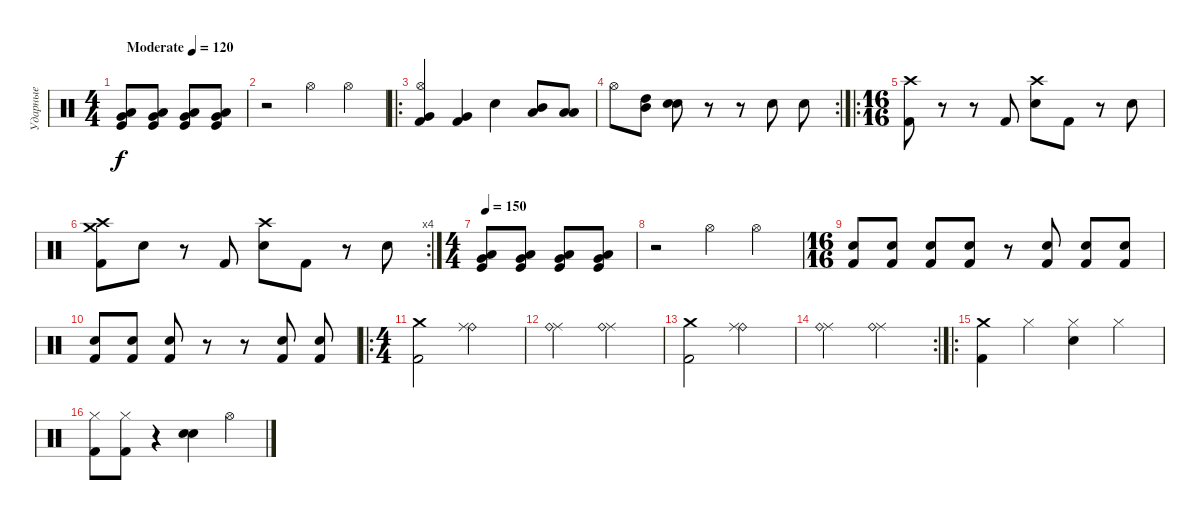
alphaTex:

\track ("Ударные" "Ударные") {instrument percussion}
\staff {score}
\articulation defaults
\ts (4 4)
\tempo (120 "Moderate")
\tempo 150
\tempo (120 "Moderate")
\clef neutral
\ks c
("Kick (hit)" "Low Floor Tom (hit)" "Very Low Tom (hit)").8{dy f} ("Kick (hit)" "Low Floor Tom (hit)" "Very Low Tom (hit)").8 ("Kick (hit)" "Low Floor Tom (hit)" "Very Low Tom (hit)").8 ("Kick (hit)" "Low Floor Tom (hit)" "Very Low Tom (hit)").8 |
r.2 "Hi-Hat (open)".4 "Hi-Hat (open)".4 |
\ro
("Hi-Hat (open)" "Kick (hit) 2" "Very Low Tom (hit)").4 ("Kick (hit) 2" "Very Low Tom (hit)").4 "Electric Snare (hit)".4 ("Low Tom (hit)" "Mid Tom (hit)").8 ("Low Tom (hit)" "Low Floor Tom (hit)").8 |
\rc 2 "Hi-Hat (open)".8
("Mid Tom (hit)" "High Tom (hit)").8 ("Electric Snare (hit)" "Electric Snare (hit)").8 r.8 r.8 "Snare (hit) 2".8 "Snare (hit) 2".8 |
\ro
\ts (16 16)
("Crash high (hit)" "Kick (hit) 2").8 r.8 r.8 "Kick (hit) 2".8 ("Crash high (hit)" "Electric Snare (hit)").8 "Kick (hit) 2".8 r.8 "Electric Snare (hit)".8 |
\rc 4
("Crash high (hit)" "Crash medium (hit)" "Kick (hit) 2").8 "Electric Snare (hit)".8 r.8 "Kick (hit) 2".8 ("Crash high (hit)" "Electric Snare (hit)").8 "Kick (hit) 2".8 r.8 "Electric Snare (hit)".8 |
\ts (4 4)
\tempo 150
("Kick (hit)" "Low Floor Tom (hit)" "Very Low Tom (hit)").8 ("Kick (hit)" "Low Floor Tom (hit)" "Very Low Tom (hit)").8 ("Kick (hit)" "Low Floor Tom (hit)" "Very Low Tom (hit)").8 ("Kick (hit)" "Low Floor Tom (hit)" "Very Low Tom (hit)").8 |
r.2 "Hi-Hat (open)".4 "Hi-Hat (open)".4 |
\ts (16 16)
("Kick (hit) 2" "Electric Snare (hit)").8 ("Kick (hit) 2" "Electric Snare (hit)").8 ("Kick (hit) 2" "Electric Snare (hit)").8 ("Kick (hit) 2" "Electric Snare (hit)").8 r.8 ("Kick (hit) 2" "Electric Snare (hit)").8 ("Kick (hit) 2" "Electric Snare (hit)").8 ("Kick (hit) 2" "Electric Snare (hit)").8 |
("Kick (hit) 2" "Electric Snare (hit)").8 ("Kick (hit) 2" "Electric Snare (hit)").8 ("Kick (hit) 2" "Electric Snare (hit)").8 r.8 r.8 ("Kick (hit) 2" "Electric Snare (hit)").8 ("Kick (hit) 2" "Electric Snare (hit)").8 |
\ro
\ts (4 4)
("Crash medium (hit)" "Kick (hit) 2").2 ("Ride (bell)" "Ride (middle)").2 |
("Ride (middle)" "Ride (bell)").2 ("Ride (middle)" "Ride (bell)").2 |
("Crash medium (hit)" "Kick (hit) 2").2 ("Ride (bell)" "Ride (middle)").2 |
\rc 2
("Ride (middle)" "Ride (bell)").2 ("Ride (middle)" "Ride (bell)").2 |
\ro
("Crash medium (hit)" "Kick (hit) 2").4 "Hi-Hat (closed)".4 ("Hi-Hat (closed)" "Electric Snare (hit)").4 "Hi-Hat (closed)".4 |
("Hi-Hat (closed)" "Kick (hit) 2").8 ("Hi-Hat (closed)" "Kick (hit) 2").8 r.4 ("Snare (hit) 2" "Electric Snare (hit)").4 "Hi-Hat (open)".4
